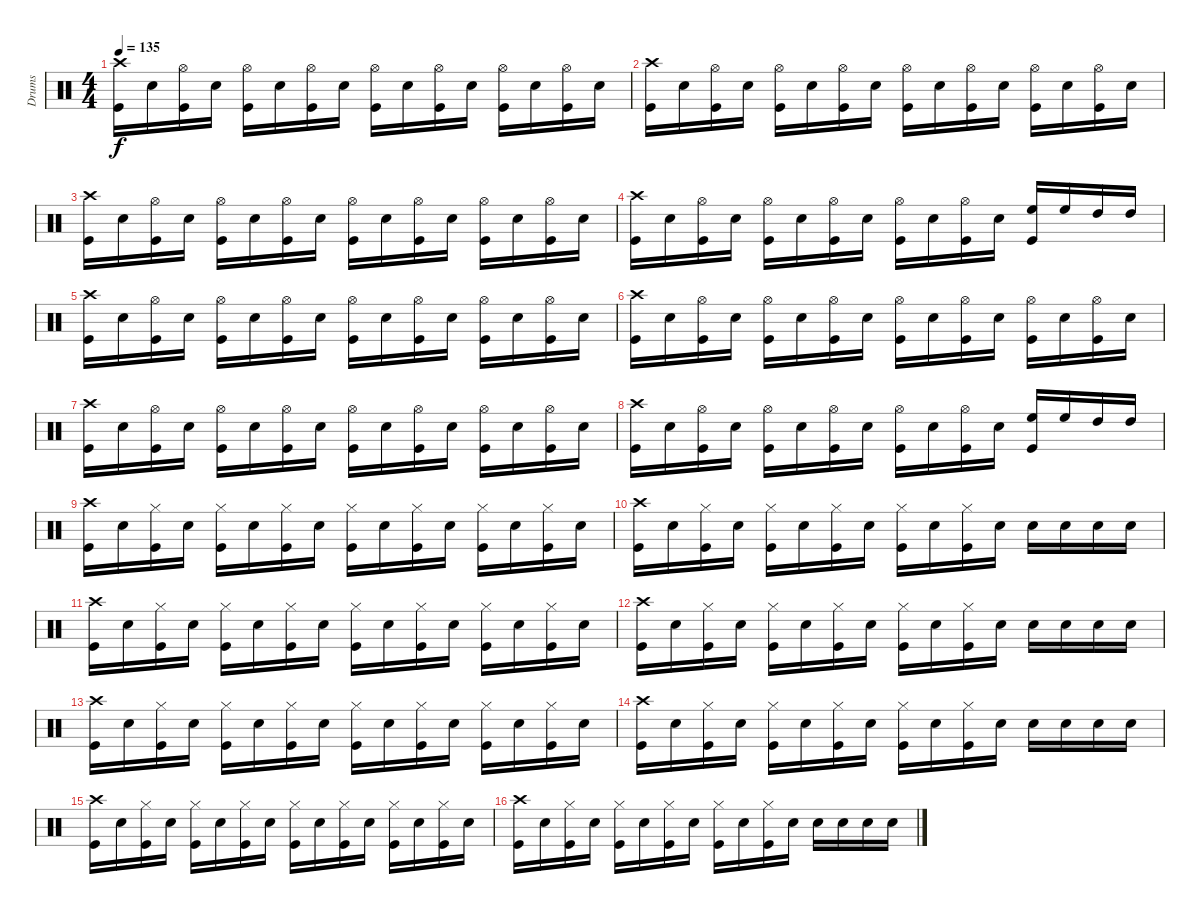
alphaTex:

\track ("Drums" "Drums") {instrument percussion}
\staff {score}
\articulation defaults
\ts (4 4)
\tempo 135
\clef neutral
\ks c
("Crash high (hit)" "Kick (hit)").16{dy f} "Snare (hit) 2".16 ("Hi-Hat (open)" "Kick (hit)").16 "Snare (hit) 2".16 ("Hi-Hat (open)" "Kick (hit)").16 "Snare (hit) 2".16 ("Hi-Hat (open)" "Kick (hit)").16 "Snare (hit) 2".16 ("Hi-Hat (open)" "Kick (hit)").16 "Snare (hit) 2".16 ("Hi-Hat (open)" "Kick (hit)").16 "Snare (hit) 2".16 ("Hi-Hat (open)" "Kick (hit)").16 "Snare (hit) 2".16 ("Hi-Hat (open)" "Kick (hit)").16 "Snare (hit) 2".16 |
("Crash high (hit)" "Kick (hit)").16 "Snare (hit) 2".16 ("Hi-Hat (open)" "Kick (hit)").16 "Snare (hit) 2".16 ("Hi-Hat (open)" "Kick (hit)").16 "Snare (hit) 2".16 ("Hi-Hat (open)" "Kick (hit)").16 "Snare (hit) 2".16 ("Hi-Hat (open)" "Kick (hit)").16 "Snare (hit) 2".16 ("Hi-Hat (open)" "Kick (hit)").16 "Snare (hit) 2".16 ("Hi-Hat (open)" "Kick (hit)").16 "Snare (hit) 2".16 ("Hi-Hat (open)" "Kick (hit)").16 "Snare (hit) 2".16 |
("Crash high (hit)" "Kick (hit)").16 "Snare (hit) 2".16 ("Hi-Hat (open)" "Kick (hit)").16 "Snare (hit) 2".16 ("Hi-Hat (open)" "Kick (hit)").16 "Snare (hit) 2".16 ("Hi-Hat (open)" "Kick (hit)").16 "Snare (hit) 2".16 ("Hi-Hat (open)" "Kick (hit)").16 "Snare (hit) 2".16 ("Hi-Hat (open)" "Kick (hit)").16 "Snare (hit) 2".16 ("Hi-Hat (open)" "Kick (hit)").16 "Snare (hit) 2".16 ("Hi-Hat (open)" "Kick (hit)").16 "Snare (hit) 2".16 |
("Crash high (hit)" "Kick (hit)").16 "Snare (hit) 2".16 ("Hi-Hat (open)" "Kick (hit)").16 "Snare (hit) 2".16 ("Hi-Hat (open)" "Kick (hit)").16 "Snare (hit) 2".16 ("Hi-Hat (open)" "Kick (hit)").16 "Snare (hit) 2".16 ("Hi-Hat (open)" "Kick (hit)").16 "Snare (hit) 2".16 ("Hi-Hat (open)" "Kick (hit)").16 "Snare (hit) 2".16 ("High Floor Tom (hit)" "Kick (hit)").16 "High Floor Tom (hit)".16 "High Tom (hit)".16 "High Tom (hit)".16 |
("Crash high (hit)" "Kick (hit)").16 "Snare (hit) 2".16 ("Hi-Hat (open)" "Kick (hit)").16 "Snare (hit) 2".16 ("Hi-Hat (open)" "Kick (hit)").16 "Snare (hit) 2".16 ("Hi-Hat (open)" "Kick (hit)").16 "Snare (hit) 2".16 ("Hi-Hat (open)" "Kick (hit)").16 "Snare (hit) 2".16 ("Hi-Hat (open)" "Kick (hit)").16 "Snare (hit) 2".16 ("Hi-Hat (open)" "Kick (hit)").16 "Snare (hit) 2".16 ("Hi-Hat (open)" "Kick (hit)").16 "Snare (hit) 2".16 |
("Crash high (hit)" "Kick (hit)").16 "Snare (hit) 2".16 ("Hi-Hat (open)" "Kick (hit)").16 "Snare (hit) 2".16 ("Hi-Hat (open)" "Kick (hit)").16 "Snare (hit) 2".16 ("Hi-Hat (open)" "Kick (hit)").16 "Snare (hit) 2".16 ("Hi-Hat (open)" "Kick (hit)").16 "Snare (hit) 2".16 ("Hi-Hat (open)" "Kick (hit)").16 "Snare (hit) 2".16 ("Hi-Hat (open)" "Kick (hit)").16 "Snare (hit) 2".16 ("Hi-Hat (open)" "Kick (hit)").16 "Snare (hit) 2".16 |
("Crash high (hit)" "Kick (hit)").16 "Snare (hit) 2".16 ("Hi-Hat (open)" "Kick (hit)").16 "Snare (hit) 2".16 ("Hi-Hat (open)" "Kick (hit)").16 "Snare (hit) 2".16 ("Hi-Hat (open)" "Kick (hit)").16 "Snare (hit) 2".16 ("Hi-Hat (open)" "Kick (hit)").16 "Snare (hit) 2".16 ("Hi-Hat (open)" "Kick (hit)").16 "Snare (hit) 2".16 ("Hi-Hat (open)" "Kick (hit)").16 "Snare (hit) 2".16 ("Hi-Hat (open)" "Kick (hit)").16 "Snare (hit) 2".16 |
("Crash high (hit)" "Kick (hit)").16 "Snare (hit) 2".16 ("Hi-Hat (open)" "Kick (hit)").16 "Snare (hit) 2".16 ("Hi-Hat (open)" "Kick (hit)").16 "Snare (hit) 2".16 ("Hi-Hat (open)" "Kick (hit)").16 "Snare (hit) 2".16 ("Hi-Hat (open)" "Kick (hit)").16 "Snare (hit) 2".16 ("Hi-Hat (open)" "Kick (hit)").16 "Snare (hit) 2".16 ("High Floor Tom (hit)" "Kick (hit)").16 "High Floor Tom (hit)".16 "High Tom (hit)".16 "High Tom (hit)".16 |
("Crash high (hit)" "Kick (hit)").16 "Snare (hit) 2".16 ("Hi-Hat (closed)" "Kick (hit)").16 "Snare (hit) 2".16 ("Hi-Hat (closed)" "Kick (hit)").16 "Snare (hit) 2".16 ("Hi-Hat (closed)" "Kick (hit)").16 "Snare (hit) 2".16 ("Hi-Hat (closed)" "Kick (hit)").16 "Snare (hit) 2".16 ("Hi-Hat (closed)" "Kick (hit)").16 "Snare (hit) 2".16 ("Hi-Hat (closed)" "Kick (hit)").16 "Snare (hit) 2".16 ("Hi-Hat (closed)" "Kick (hit)").16 "Snare (hit) 2".16 |
("Crash high (hit)" "Kick (hit)").16 "Snare (hit) 2".16 ("Hi-Hat (closed)" "Kick (hit)").16 "Snare (hit) 2".16 ("Hi-Hat (closed)" "Kick (hit)").16 "Snare (hit) 2".16 ("Hi-Hat (closed)" "Kick (hit)").16 "Snare (hit) 2".16 ("Hi-Hat (closed)" "Kick (hit)").16 "Snare (hit) 2".16 ("Hi-Hat (closed)" "Kick (hit)").16 "Snare (hit) 2".16 "Snare (hit) 2".16 "Snare (hit) 2".16 "Snare (hit) 2".16 "Snare (hit) 2".16 |
("Crash high (hit)" "Kick (hit)").16 "Snare (hit) 2".16 ("Hi-Hat (closed)" "Kick (hit)").16 "Snare (hit) 2".16 ("Hi-Hat (closed)" "Kick (hit)").16 "Snare (hit) 2".16 ("Hi-Hat (closed)" "Kick (hit)").16 "Snare (hit) 2".16 ("Hi-Hat (closed)" "Kick (hit)").16 "Snare (hit) 2".16 ("Hi-Hat (closed)" "Kick (hit)").16 "Snare (hit) 2".16 ("Hi-Hat (closed)" "Kick (hit)").16 "Snare (hit) 2".16 ("Hi-Hat (closed)" "Kick (hit)").16 "Snare (hit) 2".16 |
("Crash high (hit)" "Kick (hit)").16 "Snare (hit) 2".16 ("Hi-Hat (closed)" "Kick (hit)").16 "Snare (hit) 2".16 ("Hi-Hat (closed)" "Kick (hit)").16 "Snare (hit) 2".16 ("Hi-Hat (closed)" "Kick (hit)").16 "Snare (hit) 2".16 ("Hi-Hat (closed)" "Kick (hit)").16 "Snare (hit) 2".16 ("Hi-Hat (closed)" "Kick (hit)").16 "Snare (hit) 2".16 "Snare (hit) 2".16 "Snare (hit) 2".16 "Snare (hit) 2".16 "Snare (hit) 2".16 |
("Crash high (hit)" "Kick (hit)").16 "Snare (hit) 2".16 ("Hi-Hat (closed)" "Kick (hit)").16 "Snare (hit) 2".16 ("Hi-Hat (closed)" "Kick (hit)").16 "Snare (hit) 2".16 ("Hi-Hat (closed)" "Kick (hit)").16 "Snare (hit) 2".16 ("Hi-Hat (closed)" "Kick (hit)").16 "Snare (hit) 2".16 ("Hi-Hat (closed)" "Kick (hit)").16 "Snare (hit) 2".16 ("Hi-Hat (closed)" "Kick (hit)").16 "Snare (hit) 2".16 ("Hi-Hat (closed)" "Kick (hit)").16 "Snare (hit) 2".16 |
("Crash high (hit)" "Kick (hit)").16 "Snare (hit) 2".16 ("Hi-Hat (closed)" "Kick (hit)").16 "Snare (hit) 2".16 ("Hi-Hat (closed)" "Kick (hit)").16 "Snare (hit) 2".16 ("Hi-Hat (closed)" "Kick (hit)").16 "Snare (hit) 2".16 ("Hi-Hat (closed)" "Kick (hit)").16 "Snare (hit) 2".16 ("Hi-Hat (closed)" "Kick (hit)").16 "Snare (hit) 2".16 "Snare (hit) 2".16 "Snare (hit) 2".16 "Snare (hit) 2".16 "Snare (hit) 2".16 |
("Crash high (hit)" "Kick (hit)").16 "Snare (hit) 2".16 ("Hi-Hat (closed)" "Kick (hit)").16 "Snare (hit) 2".16 ("Hi-Hat (closed)" "Kick (hit)").16 "Snare (hit) 2".16 ("Hi-Hat (closed)" "Kick (hit)").16 "Snare (hit) 2".16 ("Hi-Hat (closed)" "Kick (hit)").16 "Snare (hit) 2".16 ("Hi-Hat (closed)" "Kick (hit)").16 "Snare (hit) 2".16 ("Hi-Hat (closed)" "Kick (hit)").16 "Snare (hit) 2".16 ("Hi-Hat (closed)" "Kick (hit)").16 "Snare (hit) 2".16 |
("Crash high (hit)" "Kick (hit)").16 "Snare (hit) 2".16 ("Hi-Hat (closed)" "Kick (hit)").16 "Snare (hit) 2".16 ("Hi-Hat (closed)" "Kick (hit)").16 "Snare (hit) 2".16 ("Hi-Hat (closed)" "Kick (hit)").16 "Snare (hit) 2".16 ("Hi-Hat (closed)" "Kick (hit)").16 "Snare (hit) 2".16 ("Hi-Hat (closed)" "Kick (hit)").16 "Snare (hit) 2".16 "Snare (hit) 2".16 "Snare (hit) 2".16 "Snare (hit) 2".16 "Snare (hit) 2".16
